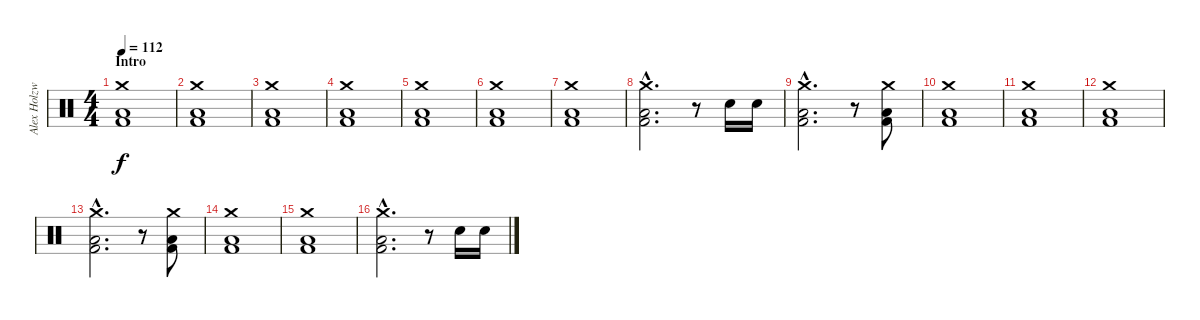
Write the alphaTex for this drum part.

\track ("Alex Holzwarth - Drums" "Alex Holzw") {instrument percussion}
\staff {score}
\articulation defaults
\ts (4 4)
\section ("" "Intro")
\tempo 112
\clef neutral
\ks c
("Crash medium (hit)" "Low Floor Tom (hit)" "Kick (hit) 2").1{dy f} |
("Crash medium (hit)" "Low Floor Tom (hit)" "Kick (hit) 2").1 |
("Crash medium (hit)" "Low Floor Tom (hit)" "Kick (hit) 2").1 |
("Crash medium (hit)" "Low Floor Tom (hit)" "Kick (hit) 2").1 |
("Crash medium (hit)" "Low Floor Tom (hit)" "Kick (hit) 2").1 |
("Crash medium (hit)" "Low Floor Tom (hit)" "Kick (hit) 2").1 |
("Crash medium (hit)" "Low Floor Tom (hit)" "Kick (hit) 2").1 |
("Crash medium (hit)"{hac} "Low Floor Tom (hit)"{hac} "Kick (hit) 2"{hac}).2{d} r.8 "Electric Snare (hit)".16 "Electric Snare (hit)".16 |
("Crash medium (hit)"{hac} "Low Floor Tom (hit)"{hac} "Kick (hit) 2"{hac}).2{d} r.8 ("Crash medium (hit)" "Low Floor Tom (hit)" "Kick (hit) 2").8 |
("Crash medium (hit)" "Low Floor Tom (hit)" "Kick (hit) 2").1 |
("Crash medium (hit)" "Low Floor Tom (hit)" "Kick (hit) 2").1 |
("Crash medium (hit)" "Low Floor Tom (hit)" "Kick (hit) 2").1 |
("Crash medium (hit)"{hac} "Low Floor Tom (hit)"{hac} "Kick (hit) 2"{hac}).2{d} r.8 ("Crash medium (hit)" "Low Floor Tom (hit)" "Kick (hit) 2").8 |
("Crash medium (hit)" "Low Floor Tom (hit)" "Kick (hit) 2").1 |
("Crash medium (hit)" "Low Floor Tom (hit)" "Kick (hit) 2").1 |
("Crash medium (hit)"{hac} "Low Floor Tom (hit)"{hac} "Kick (hit) 2"{hac}).2{d} r.8 "Electric Snare (hit)".16 "Electric Snare (hit)".16
